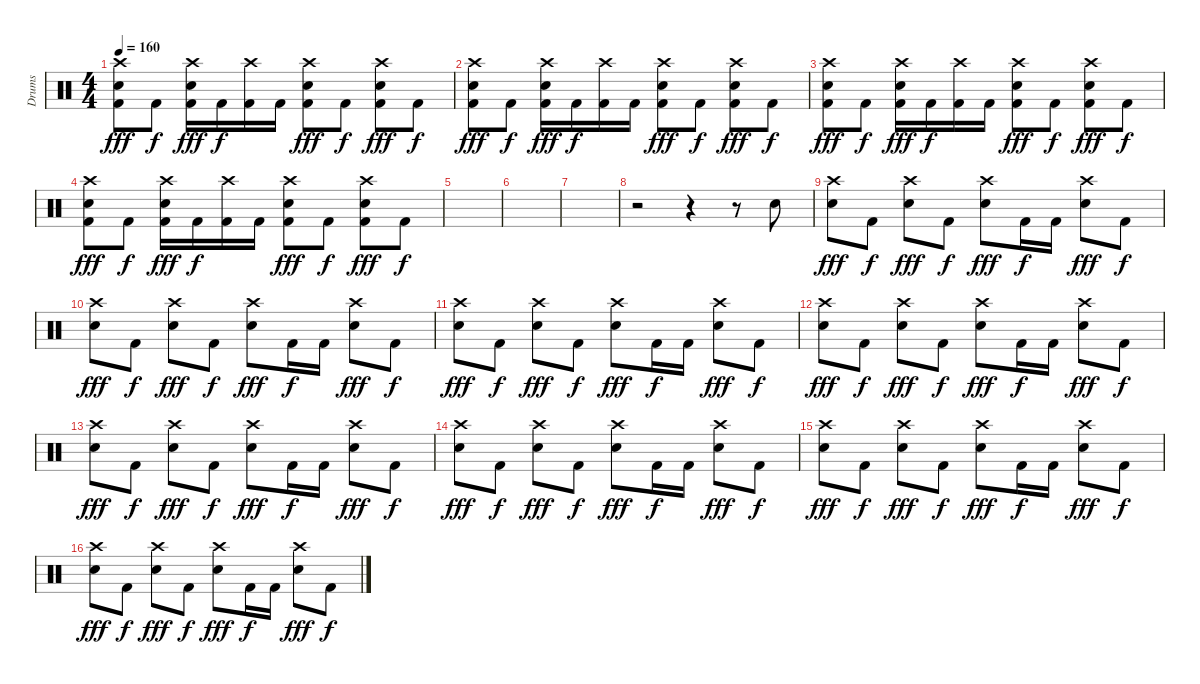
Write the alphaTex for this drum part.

\track ("Drums" "Drums") {instrument percussion}
\staff {score}
\articulation defaults
\ts (4 4)
\tempo 160
\clef neutral
\ks c
("Crash high (hit)" "Kick (hit) 2" "Snare (hit) 2").8{dy fff} "Kick (hit) 2".8{dy f} ("Crash high (hit)" "Kick (hit) 2" "Snare (hit) 2").16{dy fff} "Kick (hit) 2".16{dy f} ("Crash high (hit)" "Kick (hit) 2").16 "Kick (hit) 2".16 ("Crash high (hit)" "Kick (hit) 2" "Snare (hit) 2").8{dy fff} "Kick (hit) 2".8{dy f} ("Crash high (hit)" "Kick (hit) 2" "Snare (hit) 2").8{dy fff} "Kick (hit) 2".8{dy f} |
("Crash high (hit)" "Kick (hit) 2" "Snare (hit) 2").8{dy fff} "Kick (hit) 2".8{dy f} ("Crash high (hit)" "Kick (hit) 2" "Snare (hit) 2").16{dy fff} "Kick (hit) 2".16{dy f} ("Crash high (hit)" "Kick (hit) 2").16 "Kick (hit) 2".16 ("Crash high (hit)" "Kick (hit) 2" "Snare (hit) 2").8{dy fff} "Kick (hit) 2".8{dy f} ("Crash high (hit)" "Kick (hit) 2" "Snare (hit) 2").8{dy fff} "Kick (hit) 2".8{dy f} |
("Crash high (hit)" "Kick (hit) 2" "Snare (hit) 2").8{dy fff} "Kick (hit) 2".8{dy f} ("Crash high (hit)" "Kick (hit) 2" "Snare (hit) 2").16{dy fff} "Kick (hit) 2".16{dy f} ("Crash high (hit)" "Kick (hit) 2").16 "Kick (hit) 2".16 ("Crash high (hit)" "Kick (hit) 2" "Snare (hit) 2").8{dy fff} "Kick (hit) 2".8{dy f} ("Crash high (hit)" "Kick (hit) 2" "Snare (hit) 2").8{dy fff} "Kick (hit) 2".8{dy f} |
("Crash high (hit)" "Kick (hit) 2" "Snare (hit) 2").8{dy fff} "Kick (hit) 2".8{dy f} ("Crash high (hit)" "Kick (hit) 2" "Snare (hit) 2").16{dy fff} "Kick (hit) 2".16{dy f} ("Crash high (hit)" "Kick (hit) 2").16 "Kick (hit) 2".16 ("Crash high (hit)" "Kick (hit) 2" "Snare (hit) 2").8{dy fff} "Kick (hit) 2".8{dy f} ("Crash high (hit)" "Kick (hit) 2" "Snare (hit) 2").8{dy fff} "Kick (hit) 2".8{dy f} |
|
|
|
r.2 r.4 r.8 "Snare (hit) 2".8 |
("Crash high (hit)" "Snare (hit) 2").8{dy fff} "Kick (hit) 2".8{dy f} ("Crash high (hit)" "Snare (hit) 2").8{dy fff} "Kick (hit) 2".8{dy f} ("Crash high (hit)" "Snare (hit) 2").8{dy fff} "Kick (hit) 2".16{dy f} "Kick (hit) 2".16 ("Crash high (hit)" "Snare (hit) 2").8{dy fff} "Kick (hit) 2".8{dy f} |
("Crash high (hit)" "Snare (hit) 2").8{dy fff} "Kick (hit) 2".8{dy f} ("Crash high (hit)" "Snare (hit) 2").8{dy fff} "Kick (hit) 2".8{dy f} ("Crash high (hit)" "Snare (hit) 2").8{dy fff} "Kick (hit) 2".16{dy f} "Kick (hit) 2".16 ("Crash high (hit)" "Snare (hit) 2").8{dy fff} "Kick (hit) 2".8{dy f} |
("Crash high (hit)" "Snare (hit) 2").8{dy fff} "Kick (hit) 2".8{dy f} ("Crash high (hit)" "Snare (hit) 2").8{dy fff} "Kick (hit) 2".8{dy f} ("Crash high (hit)" "Snare (hit) 2").8{dy fff} "Kick (hit) 2".16{dy f} "Kick (hit) 2".16 ("Crash high (hit)" "Snare (hit) 2").8{dy fff} "Kick (hit) 2".8{dy f} |
("Crash high (hit)" "Snare (hit) 2").8{dy fff} "Kick (hit) 2".8{dy f} ("Crash high (hit)" "Snare (hit) 2").8{dy fff} "Kick (hit) 2".8{dy f} ("Crash high (hit)" "Snare (hit) 2").8{dy fff} "Kick (hit) 2".16{dy f} "Kick (hit) 2".16 ("Crash high (hit)" "Snare (hit) 2").8{dy fff} "Kick (hit) 2".8{dy f} |
("Crash high (hit)" "Snare (hit) 2").8{dy fff} "Kick (hit) 2".8{dy f} ("Crash high (hit)" "Snare (hit) 2").8{dy fff} "Kick (hit) 2".8{dy f} ("Crash high (hit)" "Snare (hit) 2").8{dy fff} "Kick (hit) 2".16{dy f} "Kick (hit) 2".16 ("Crash high (hit)" "Snare (hit) 2").8{dy fff} "Kick (hit) 2".8{dy f} |
("Crash high (hit)" "Snare (hit) 2").8{dy fff} "Kick (hit) 2".8{dy f} ("Crash high (hit)" "Snare (hit) 2").8{dy fff} "Kick (hit) 2".8{dy f} ("Crash high (hit)" "Snare (hit) 2").8{dy fff} "Kick (hit) 2".16{dy f} "Kick (hit) 2".16 ("Crash high (hit)" "Snare (hit) 2").8{dy fff} "Kick (hit) 2".8{dy f} |
("Crash high (hit)" "Snare (hit) 2").8{dy fff} "Kick (hit) 2".8{dy f} ("Crash high (hit)" "Snare (hit) 2").8{dy fff} "Kick (hit) 2".8{dy f} ("Crash high (hit)" "Snare (hit) 2").8{dy fff} "Kick (hit) 2".16{dy f} "Kick (hit) 2".16 ("Crash high (hit)" "Snare (hit) 2").8{dy fff} "Kick (hit) 2".8{dy f} |
("Crash high (hit)" "Snare (hit) 2").8{dy fff} "Kick (hit) 2".8{dy f} ("Crash high (hit)" "Snare (hit) 2").8{dy fff} "Kick (hit) 2".8{dy f} ("Crash high (hit)" "Snare (hit) 2").8{dy fff} "Kick (hit) 2".16{dy f} "Kick (hit) 2".16 ("Crash high (hit)" "Snare (hit) 2").8{dy fff} "Kick (hit) 2".8{dy f}
